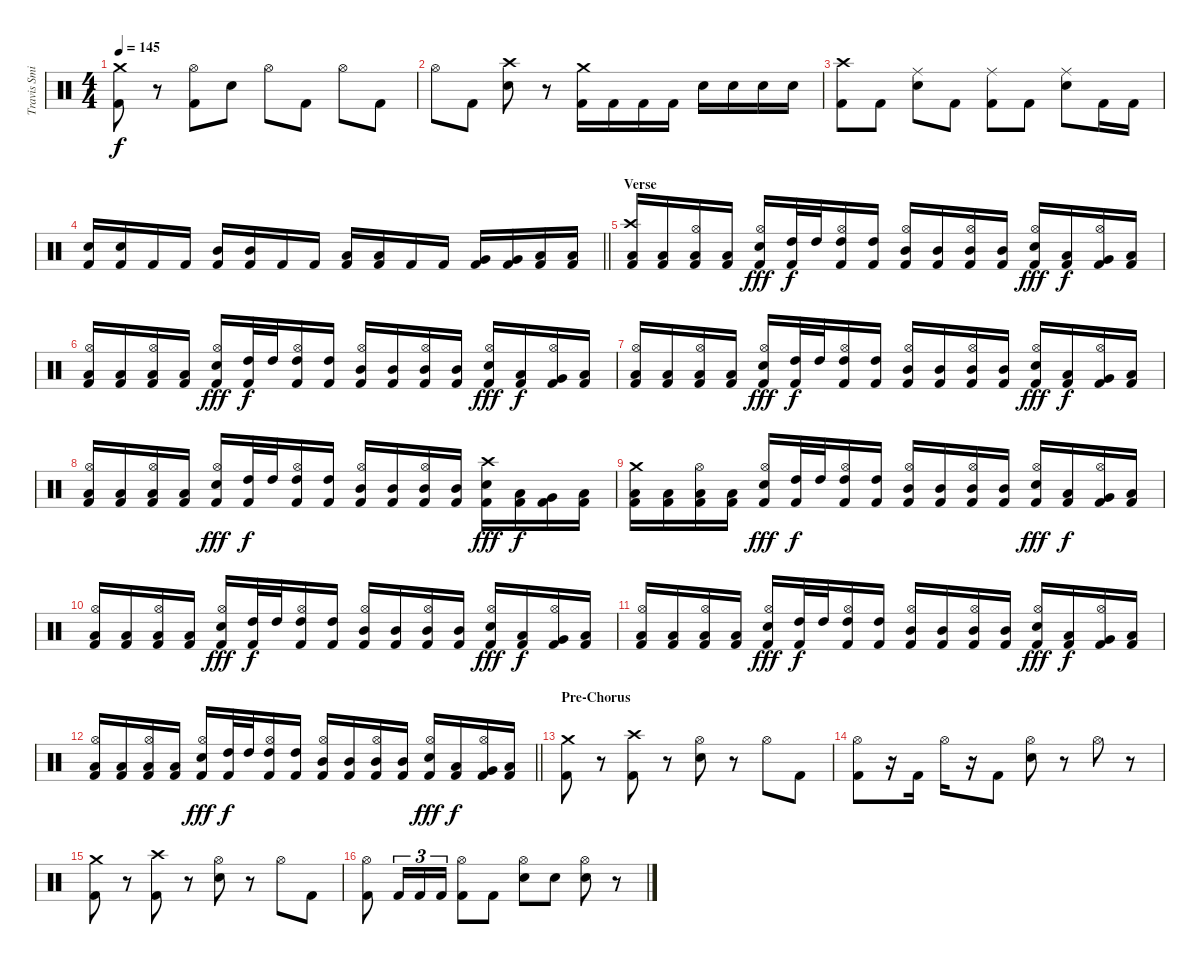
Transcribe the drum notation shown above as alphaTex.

\track ("Travis Smith" "Travis Smi") {instrument percussion}
\staff {score}
\articulation defaults
\ts (4 4)
\tempo 145
\clef neutral
\ks c
("Crash medium (hit)" "Kick (hit) 2").8{dy f} r.8 ("Hi-Hat (open)" "Kick (hit) 2").8 "Electric Snare (hit)".8 "Hi-Hat (open)".8 "Kick (hit) 2".8 "Hi-Hat (open)".8 "Kick (hit) 2".8 |
"Hi-Hat (open)".8 "Kick (hit) 2".8 ("Crash high (hit)" "Electric Snare (hit)").8 r.8 ("Crash medium (hit)" "Kick (hit) 2").16 "Kick (hit) 2".16 "Kick (hit) 2".16 "Kick (hit) 2".16 "Electric Snare (hit)".16 "Electric Snare (hit)".16 "Electric Snare (hit)".16 "Electric Snare (hit)".16 |
("Crash high (hit)" "Kick (hit) 2").8 "Kick (hit) 2".8 ("Ride (middle)" "Electric Snare (hit)").8 "Kick (hit) 2".8 ("Ride (middle)" "Kick (hit) 2").8 "Kick (hit) 2".8 ("Ride (middle)" "Electric Snare (hit)").8 "Kick (hit) 2".16 "Kick (hit) 2".16 |
\barLineRight lightlight
("Electric Snare (hit)" "Kick (hit) 2").16 ("Electric Snare (hit)" "Kick (hit) 2").16 "Kick (hit) 2".16 "Kick (hit) 2".16 ("Mid Tom (hit)" "Kick (hit) 2").16 ("Mid Tom (hit)" "Kick (hit) 2").16 "Kick (hit) 2".16 "Kick (hit) 2".16 ("Low Tom (hit)" "Kick (hit) 2").16 ("Low Tom (hit)" "Kick (hit) 2").16 "Kick (hit) 2".16 "Kick (hit) 2".16 ("Very Low Tom (hit)" "Kick (hit) 2").16 ("Very Low Tom (hit)" "Kick (hit) 2").16 ("Low Floor Tom (hit)" "Kick (hit) 2").16 ("Low Floor Tom (hit)" "Kick (hit) 2").16 |
\section ("" "Verse")
("Crash high (hit)" "Low Tom (hit)" "Kick (hit) 2").16 ("Low Tom (hit)" "Kick (hit) 2").16 ("Hi-Hat (open)" "Low Tom (hit)" "Kick (hit) 2").16 ("Low Tom (hit)" "Kick (hit) 2").16 ("Hi-Hat (open)" "Electric Snare (hit)" "Kick (hit) 2").16{dy fff} ("High Tom (hit)" "Kick (hit) 2").32{dy f} "High Tom (hit)".32 ("Hi-Hat (open)" "High Tom (hit)" "Kick (hit) 2").16 ("High Tom (hit)" "Kick (hit) 2").16 ("Hi-Hat (open)" "Mid Tom (hit)" "Kick (hit) 2").16 ("Mid Tom (hit)" "Kick (hit) 2").16 ("Hi-Hat (open)" "Mid Tom (hit)" "Kick (hit) 2").16 ("Mid Tom (hit)" "Kick (hit) 2").16 ("Hi-Hat (open)" "Electric Snare (hit)" "Kick (hit) 2").16{dy fff} ("Low Tom (hit)" "Kick (hit) 2").16{dy f} ("Hi-Hat (open)" "Very Low Tom (hit)" "Kick (hit) 2").16 ("Low Floor Tom (hit)" "Kick (hit) 2").16 |
("Hi-Hat (open)" "Low Tom (hit)" "Kick (hit) 2").16 ("Low Tom (hit)" "Kick (hit) 2").16 ("Hi-Hat (open)" "Low Tom (hit)" "Kick (hit) 2").16 ("Low Tom (hit)" "Kick (hit) 2").16 ("Hi-Hat (open)" "Electric Snare (hit)" "Kick (hit) 2").16{dy fff} ("High Tom (hit)" "Kick (hit) 2").32{dy f} "High Tom (hit)".32 ("Hi-Hat (open)" "High Tom (hit)" "Kick (hit) 2").16 ("High Tom (hit)" "Kick (hit) 2").16 ("Hi-Hat (open)" "Mid Tom (hit)" "Kick (hit) 2").16 ("Mid Tom (hit)" "Kick (hit) 2").16 ("Hi-Hat (open)" "Mid Tom (hit)" "Kick (hit) 2").16 ("Mid Tom (hit)" "Kick (hit) 2").16 ("Hi-Hat (open)" "Electric Snare (hit)" "Kick (hit) 2").16{dy fff} ("Low Tom (hit)" "Kick (hit) 2").16{dy f} ("Hi-Hat (open)" "Very Low Tom (hit)" "Kick (hit) 2").16 ("Low Floor Tom (hit)" "Kick (hit) 2").16 |
("Hi-Hat (open)" "Low Tom (hit)" "Kick (hit) 2").16 ("Low Tom (hit)" "Kick (hit) 2").16 ("Hi-Hat (open)" "Low Tom (hit)" "Kick (hit) 2").16 ("Low Tom (hit)" "Kick (hit) 2").16 ("Hi-Hat (open)" "Electric Snare (hit)" "Kick (hit) 2").16{dy fff} ("High Tom (hit)" "Kick (hit) 2").32{dy f} "High Tom (hit)".32 ("Hi-Hat (open)" "High Tom (hit)" "Kick (hit) 2").16 ("High Tom (hit)" "Kick (hit) 2").16 ("Hi-Hat (open)" "Mid Tom (hit)" "Kick (hit) 2").16 ("Mid Tom (hit)" "Kick (hit) 2").16 ("Hi-Hat (open)" "Mid Tom (hit)" "Kick (hit) 2").16 ("Mid Tom (hit)" "Kick (hit) 2").16 ("Hi-Hat (open)" "Electric Snare (hit)" "Kick (hit) 2").16{dy fff} ("Low Tom (hit)" "Kick (hit) 2").16{dy f} ("Hi-Hat (open)" "Very Low Tom (hit)" "Kick (hit) 2").16 ("Low Floor Tom (hit)" "Kick (hit) 2").16 |
("Hi-Hat (open)" "Low Tom (hit)" "Kick (hit) 2").16 ("Low Tom (hit)" "Kick (hit) 2").16 ("Hi-Hat (open)" "Low Tom (hit)" "Kick (hit) 2").16 ("Low Tom (hit)" "Kick (hit) 2").16 ("Hi-Hat (open)" "Electric Snare (hit)" "Kick (hit) 2").16{dy fff} ("High Tom (hit)" "Kick (hit) 2").32{dy f} "High Tom (hit)".32 ("Hi-Hat (open)" "High Tom (hit)" "Kick (hit) 2").16 ("High Tom (hit)" "Kick (hit) 2").16 ("Hi-Hat (open)" "Mid Tom (hit)" "Kick (hit) 2").16 ("Mid Tom (hit)" "Kick (hit) 2").16 ("Hi-Hat (open)" "Mid Tom (hit)" "Kick (hit) 2").16 ("Mid Tom (hit)" "Kick (hit) 2").16 ("Crash high (hit)" "Electric Snare (hit)" "Kick (hit) 2").16{dy fff} ("Low Tom (hit)" "Kick (hit) 2").16{dy f} ("Very Low Tom (hit)" "Kick (hit) 2").16 ("Low Floor Tom (hit)" "Kick (hit) 2").16 |
("Crash medium (hit)" "Low Tom (hit)" "Kick (hit) 2").16 ("Low Tom (hit)" "Kick (hit) 2").16 ("Hi-Hat (open)" "Low Tom (hit)" "Kick (hit) 2").16 ("Low Tom (hit)" "Kick (hit) 2").16 ("Hi-Hat (open)" "Electric Snare (hit)" "Kick (hit) 2").16{dy fff} ("High Tom (hit)" "Kick (hit) 2").32{dy f} "High Tom (hit)".32 ("Hi-Hat (open)" "High Tom (hit)" "Kick (hit) 2").16 ("High Tom (hit)" "Kick (hit) 2").16 ("Hi-Hat (open)" "Mid Tom (hit)" "Kick (hit) 2").16 ("Mid Tom (hit)" "Kick (hit) 2").16 ("Hi-Hat (open)" "Mid Tom (hit)" "Kick (hit) 2").16 ("Mid Tom (hit)" "Kick (hit) 2").16 ("Hi-Hat (open)" "Electric Snare (hit)" "Kick (hit) 2").16{dy fff} ("Low Tom (hit)" "Kick (hit) 2").16{dy f} ("Hi-Hat (open)" "Very Low Tom (hit)" "Kick (hit) 2").16 ("Low Floor Tom (hit)" "Kick (hit) 2").16 |
("Hi-Hat (open)" "Low Tom (hit)" "Kick (hit) 2").16 ("Low Tom (hit)" "Kick (hit) 2").16 ("Hi-Hat (open)" "Low Tom (hit)" "Kick (hit) 2").16 ("Low Tom (hit)" "Kick (hit) 2").16 ("Hi-Hat (open)" "Electric Snare (hit)" "Kick (hit) 2").16{dy fff} ("High Tom (hit)" "Kick (hit) 2").32{dy f} "High Tom (hit)".32 ("Hi-Hat (open)" "High Tom (hit)" "Kick (hit) 2").16 ("High Tom (hit)" "Kick (hit) 2").16 ("Hi-Hat (open)" "Mid Tom (hit)" "Kick (hit) 2").16 ("Mid Tom (hit)" "Kick (hit) 2").16 ("Hi-Hat (open)" "Mid Tom (hit)" "Kick (hit) 2").16 ("Mid Tom (hit)" "Kick (hit) 2").16 ("Hi-Hat (open)" "Electric Snare (hit)" "Kick (hit) 2").16{dy fff} ("Low Tom (hit)" "Kick (hit) 2").16{dy f} ("Hi-Hat (open)" "Very Low Tom (hit)" "Kick (hit) 2").16 ("Low Floor Tom (hit)" "Kick (hit) 2").16 |
("Hi-Hat (open)" "Low Tom (hit)" "Kick (hit) 2").16 ("Low Tom (hit)" "Kick (hit) 2").16 ("Hi-Hat (open)" "Low Tom (hit)" "Kick (hit) 2").16 ("Low Tom (hit)" "Kick (hit) 2").16 ("Hi-Hat (open)" "Electric Snare (hit)" "Kick (hit) 2").16{dy fff} ("High Tom (hit)" "Kick (hit) 2").32{dy f} "High Tom (hit)".32 ("Hi-Hat (open)" "High Tom (hit)" "Kick (hit) 2").16 ("High Tom (hit)" "Kick (hit) 2").16 ("Hi-Hat (open)" "Mid Tom (hit)" "Kick (hit) 2").16 ("Mid Tom (hit)" "Kick (hit) 2").16 ("Hi-Hat (open)" "Mid Tom (hit)" "Kick (hit) 2").16 ("Mid Tom (hit)" "Kick (hit) 2").16 ("Hi-Hat (open)" "Electric Snare (hit)" "Kick (hit) 2").16{dy fff} ("Low Tom (hit)" "Kick (hit) 2").16{dy f} ("Hi-Hat (open)" "Very Low Tom (hit)" "Kick (hit) 2").16 ("Low Floor Tom (hit)" "Kick (hit) 2").16 |
\barLineRight lightlight
("Hi-Hat (open)" "Low Tom (hit)" "Kick (hit) 2").16 ("Low Tom (hit)" "Kick (hit) 2").16 ("Hi-Hat (open)" "Low Tom (hit)" "Kick (hit) 2").16 ("Low Tom (hit)" "Kick (hit) 2").16 ("Hi-Hat (open)" "Electric Snare (hit)" "Kick (hit) 2").16{dy fff} ("High Tom (hit)" "Kick (hit) 2").32{dy f} "High Tom (hit)".32 ("Hi-Hat (open)" "High Tom (hit)" "Kick (hit) 2").16 ("High Tom (hit)" "Kick (hit) 2").16 ("Hi-Hat (open)" "Mid Tom (hit)" "Kick (hit) 2").16 ("Mid Tom (hit)" "Kick (hit) 2").16 ("Hi-Hat (open)" "Mid Tom (hit)" "Kick (hit) 2").16 ("Mid Tom (hit)" "Kick (hit) 2").16 ("Hi-Hat (open)" "Electric Snare (hit)" "Kick (hit) 2").16{dy fff} ("Low Tom (hit)" "Kick (hit) 2").16{dy f} ("Hi-Hat (open)" "Very Low Tom (hit)" "Kick (hit) 2").16 ("Low Floor Tom (hit)" "Kick (hit) 2").16 |
\section ("" "Pre-Chorus")
("Crash medium (hit)" "Kick (hit) 2").8 r.8 ("Crash high (hit)" "Kick (hit) 2").8 r.8 ("Hi-Hat (open)" "Electric Snare (hit)").8 r.8 "Hi-Hat (open)".8 "Kick (hit) 2".8 |
("Hi-Hat (open)" "Kick (hit) 2").8 r.16 "Kick (hit) 2".16 "Hi-Hat (open)".16 r.16 "Kick (hit) 2".8 ("Hi-Hat (open)" "Electric Snare (hit)").8 r.8 "Hi-Hat (open)".8 r.8 |
("Crash medium (hit)" "Kick (hit) 2").8 r.8 ("Crash high (hit)" "Kick (hit) 2").8 r.8 ("Hi-Hat (open)" "Electric Snare (hit)").8 r.8 "Hi-Hat (open)".8 "Kick (hit) 2".8 |
("Hi-Hat (open)" "Kick (hit) 2").8 "Kick (hit) 2".16{tu (3 2)} "Kick (hit) 2".16{tu (3 2)} "Kick (hit) 2".16{tu (3 2)} ("Hi-Hat (open)" "Kick (hit) 2").8 "Kick (hit) 2".8 ("Hi-Hat (open)" "Electric Snare (hit)").8 "Electric Snare (hit)".8 ("Hi-Hat (open)" "Electric Snare (hit)").8 r.8
